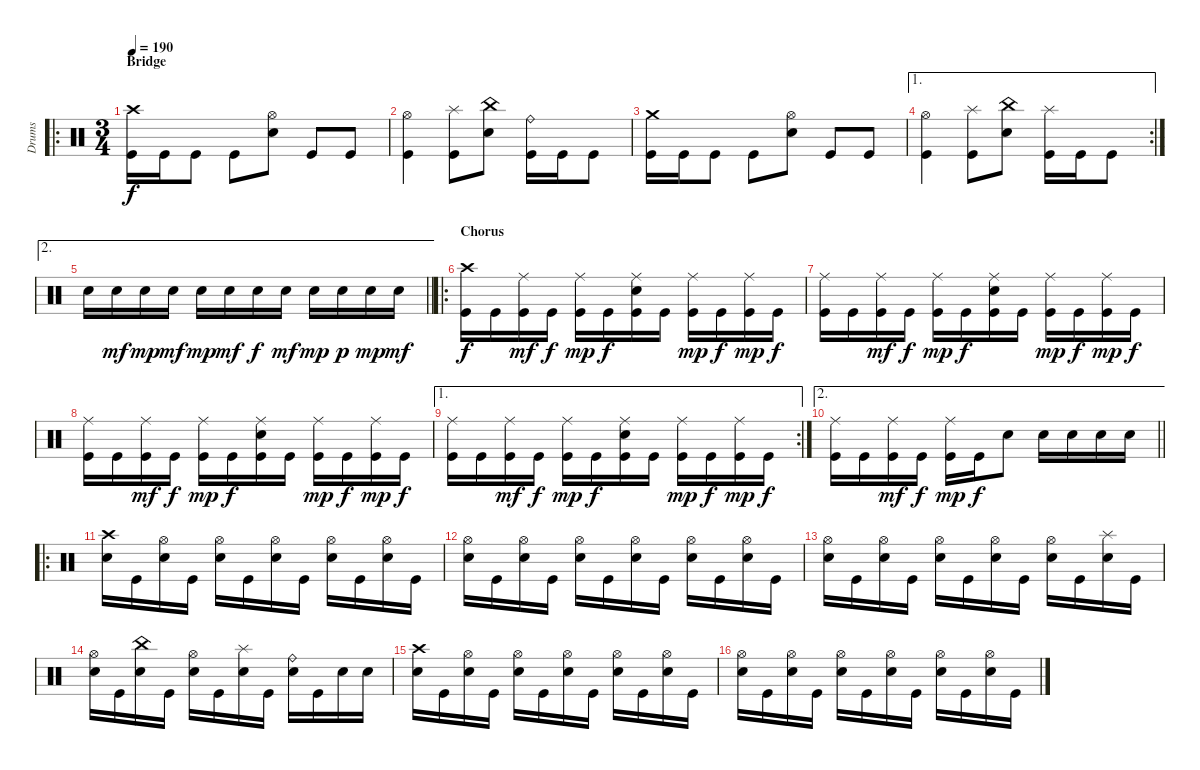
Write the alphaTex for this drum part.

\track ("Drums" "Drums") {instrument percussion}
\staff {score}
\articulation defaults
\ro
\ts (3 4)
\section ("" "Bridge")
\tempo 190
\clef neutral
\ks c
("Crash high (hit)" "Kick (hit)").16{dy f} "Kick (hit)".16 "Kick (hit)".8 "Kick (hit)".8 ("Hi-Hat (open)" "Electric Snare (hit)").8 "Kick (hit)".8 "Kick (hit)".8 |
("Hi-Hat (open)" "Kick (hit)").4 ("Splash (hit)" "Kick (hit)").8 ("China (hit)" "Electric Snare (hit)").8 ("Ride (bell)" "Kick (hit)").16 "Kick (hit)".16 "Kick (hit)".8 |
("Crash medium (hit)" "Kick (hit)").16 "Kick (hit)".16 "Kick (hit)".8 "Kick (hit)".8 ("Hi-Hat (open)" "Electric Snare (hit)").8 "Kick (hit)".8 "Kick (hit)".8 |
\ae 1
\rc 2
("Hi-Hat (open)" "Kick (hit)").4 ("Splash (hit)" "Kick (hit)").8 ("China (hit)" "Electric Snare (hit)").8 ("Splash (hit)" "Kick (hit)").16 "Kick (hit)".16 "Kick (hit)".8 |
\ae 2
\barLineRight lightlight "Electric Snare (hit)".16 "Snare (hit) 2".16{dy mf} "Snare (hit) 2".16{dy mp} "Snare (hit) 2".16{dy mf} "Snare (hit) 2".16{dy mp} "Snare (hit) 2".16{dy mf} "Electric Snare (hit)".16{dy f} "Snare (hit) 2".16{dy mf} "Snare (hit) 2".16{dy mp} "Snare (hit) 2".16{dy p} "Snare (hit) 2".16{dy mp} "Snare (hit) 2".16{dy mf}
|
\ro
\section ("" "Chorus")
("Crash high (hit)" "Kick (hit)").16{dy f} "Kick (hit)".16 ("Ride (middle)" "Kick (hit)").16{dy mf} "Kick (hit)".16{dy f} ("Ride (middle)" "Kick (hit)").16{dy mp} "Kick (hit)".16{dy f} ("Ride (middle)" "Electric Snare (hit)" "Kick (hit)").16 "Kick (hit)".16 ("Ride (middle)" "Kick (hit)").16{dy mp} "Kick (hit)".16{dy f} ("Ride (middle)" "Kick (hit)").16{dy mp} "Kick (hit)".16{dy f} |
("Ride (middle)" "Kick (hit)").16 "Kick (hit)".16 ("Ride (middle)" "Kick (hit)").16{dy mf} "Kick (hit)".16{dy f} ("Ride (middle)" "Kick (hit)").16{dy mp} "Kick (hit)".16{dy f} ("Ride (middle)" "Electric Snare (hit)" "Kick (hit)").16 "Kick (hit)".16 ("Ride (middle)" "Kick (hit)").16{dy mp} "Kick (hit)".16{dy f} ("Ride (middle)" "Kick (hit)").16{dy mp} "Kick (hit)".16{dy f} |
("Ride (middle)" "Kick (hit)").16 "Kick (hit)".16 ("Ride (middle)" "Kick (hit)").16{dy mf} "Kick (hit)".16{dy f} ("Ride (middle)" "Kick (hit)").16{dy mp} "Kick (hit)".16{dy f} ("Ride (middle)" "Electric Snare (hit)" "Kick (hit)").16 "Kick (hit)".16 ("Ride (middle)" "Kick (hit)").16{dy mp} "Kick (hit)".16{dy f} ("Ride (middle)" "Kick (hit)").16{dy mp} "Kick (hit)".16{dy f} |
\ae 1
\rc 2
("Ride (middle)" "Kick (hit)").16 "Kick (hit)".16 ("Ride (middle)" "Kick (hit)").16{dy mf} "Kick (hit)".16{dy f} ("Ride (middle)" "Kick (hit)").16{dy mp} "Kick (hit)".16{dy f} ("Ride (middle)" "Electric Snare (hit)" "Kick (hit)").16 "Kick (hit)".16 ("Ride (middle)" "Kick (hit)").16{dy mp} "Kick (hit)".16{dy f} ("Ride (middle)" "Kick (hit)").16{dy mp} "Kick (hit)".16{dy f} |
\ae 2
\barLineRight lightlight
("Ride (middle)" "Kick (hit)").16 "Kick (hit)".16 ("Ride (middle)" "Kick (hit)").16{dy mf} "Kick (hit)".16{dy f} ("Ride (middle)" "Kick (hit)").16{dy mp} "Kick (hit)".16{dy f} "Electric Snare (hit)".8 "Electric Snare (hit)".16 "Electric Snare (hit)".16 "Electric Snare (hit)".16 "Electric Snare (hit)".16 |
\ro
("Crash high (hit)" "Snare (hit) 2").16 "Kick (hit)".16 ("Hi-Hat (open)" "Snare (hit) 2").16 "Kick (hit)".16 ("Hi-Hat (open)" "Snare (hit) 2").16 "Kick (hit)".16 ("Hi-Hat (open)" "Snare (hit) 2").16 "Kick (hit)".16 ("Hi-Hat (open)" "Snare (hit) 2").16 "Kick (hit)".16 ("Hi-Hat (open)" "Snare (hit) 2").16 "Kick (hit)".16 |
("Hi-Hat (open)" "Snare (hit) 2").16 "Kick (hit)".16 ("Hi-Hat (open)" "Snare (hit) 2").16 "Kick (hit)".16 ("Hi-Hat (open)" "Snare (hit) 2").16 "Kick (hit)".16 ("Hi-Hat (open)" "Snare (hit) 2").16 "Kick (hit)".16 ("Hi-Hat (open)" "Snare (hit) 2").16 "Kick (hit)".16 ("Hi-Hat (open)" "Snare (hit) 2").16 "Kick (hit)".16 |
("Hi-Hat (open)" "Snare (hit) 2").16 "Kick (hit)".16 ("Hi-Hat (open)" "Snare (hit) 2").16 "Kick (hit)".16 ("Hi-Hat (open)" "Snare (hit) 2").16 "Kick (hit)".16 ("Hi-Hat (open)" "Snare (hit) 2").16 "Kick (hit)".16 ("Hi-Hat (open)" "Snare (hit) 2").16 "Kick (hit)".16 ("Splash (hit)" "Snare (hit) 2").16 "Kick (hit)".16 |
("Hi-Hat (open)" "Snare (hit) 2").16 "Kick (hit)".16 ("China (hit)" "Snare (hit) 2").16 "Kick (hit)".16 ("Hi-Hat (open)" "Snare (hit) 2").16 "Kick (hit)".16 ("Splash (hit)" "Snare (hit) 2").16 "Kick (hit)".16 ("Ride (bell)" "Snare (hit) 2").16 "Kick (hit)".16 "Snare (hit) 2".16 "Snare (hit) 2".16 |
("Crash high (hit)" "Snare (hit) 2").16 "Kick (hit)".16 ("Hi-Hat (open)" "Snare (hit) 2").16 "Kick (hit)".16 ("Hi-Hat (open)" "Snare (hit) 2").16 "Kick (hit)".16 ("Hi-Hat (open)" "Snare (hit) 2").16 "Kick (hit)".16 ("Hi-Hat (open)" "Snare (hit) 2").16 "Kick (hit)".16 ("Hi-Hat (open)" "Snare (hit) 2").16 "Kick (hit)".16 |
("Hi-Hat (open)" "Snare (hit) 2").16 "Kick (hit)".16 ("Hi-Hat (open)" "Snare (hit) 2").16 "Kick (hit)".16 ("Hi-Hat (open)" "Snare (hit) 2").16 "Kick (hit)".16 ("Hi-Hat (open)" "Snare (hit) 2").16 "Kick (hit)".16 ("Hi-Hat (open)" "Snare (hit) 2").16 "Kick (hit)".16 ("Hi-Hat (open)" "Snare (hit) 2").16 "Kick (hit)".16
